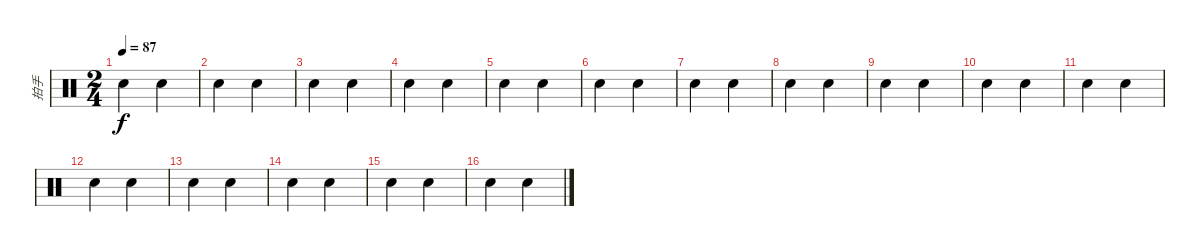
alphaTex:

\track ("拍手" "拍手") {instrument percussion}
\staff {score}
\articulation defaults
\ts (2 4)
\tempo 87
\clef neutral
\ks c "Hand Clap (hit)".4{dy f} "Hand Clap (hit)".4
|
"Hand Clap (hit)".4 "Hand Clap (hit)".4 |
"Hand Clap (hit)".4 "Hand Clap (hit)".4 |
"Hand Clap (hit)".4 "Hand Clap (hit)".4 |
"Hand Clap (hit)".4 "Hand Clap (hit)".4 |
"Hand Clap (hit)".4 "Hand Clap (hit)".4 |
"Hand Clap (hit)".4 "Hand Clap (hit)".4 |
"Hand Clap (hit)".4 "Hand Clap (hit)".4 |
"Hand Clap (hit)".4 "Hand Clap (hit)".4 |
"Hand Clap (hit)".4 "Hand Clap (hit)".4 |
"Hand Clap (hit)".4 "Hand Clap (hit)".4 |
"Hand Clap (hit)".4 "Hand Clap (hit)".4 |
"Hand Clap (hit)".4 "Hand Clap (hit)".4 |
"Hand Clap (hit)".4 "Hand Clap (hit)".4 |
"Hand Clap (hit)".4 "Hand Clap (hit)".4 |
"Hand Clap (hit)".4 "Hand Clap (hit)".4
